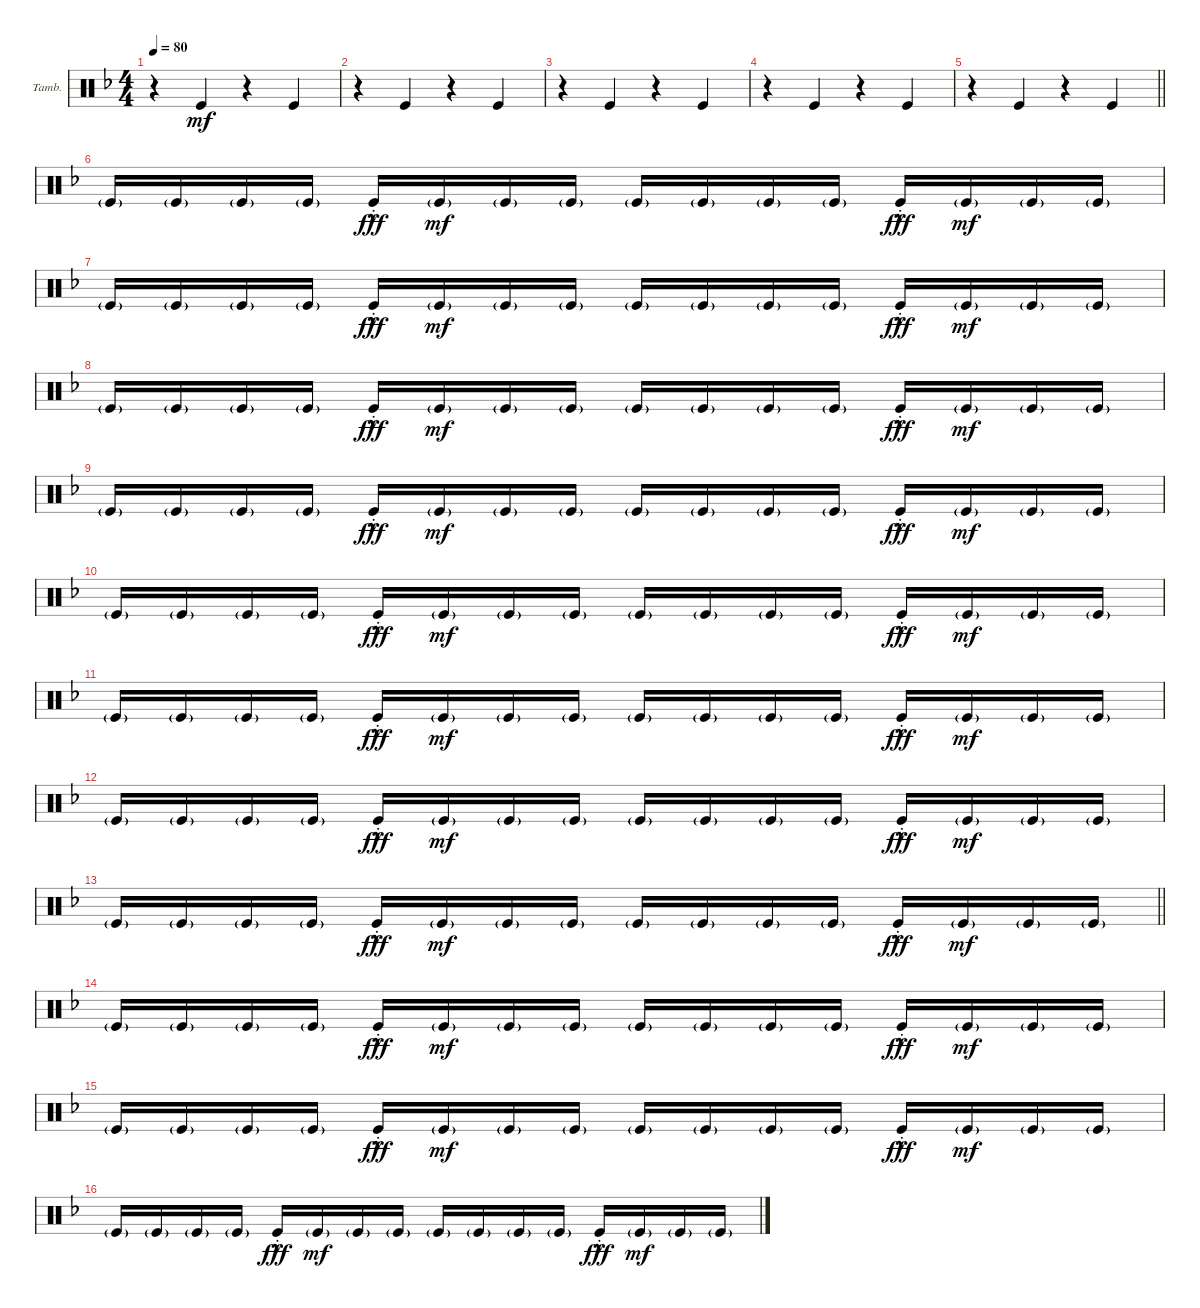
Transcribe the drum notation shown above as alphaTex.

\defaultSystemsLayout 4
\bracketExtendMode groupsimilarinstruments
\firstSystemTrackNameOrientation horizontal
\otherSystemsTrackNameOrientation horizontal
\track ("Tambourine" "Tamb.") {instrument percussion}
\staff {score}
\articulation defaults
\ts (4 4)
\tempo 80
\clef neutral
\ks f
r.4{dy mf} "Kick (hit)".4 r.4 "Kick (hit)".4 |
r.4 "Kick (hit)".4 r.4 "Kick (hit)".4 |
r.4 "Kick (hit)".4 r.4 "Kick (hit)".4 |
r.4 "Kick (hit)".4 r.4 "Kick (hit)".4 |
\barLineRight lightlight
r.4 "Kick (hit)".4 r.4 "Kick (hit)".4 |
"Kick (hit)"{g}.16 "Kick (hit)"{g}.16 "Kick (hit)"{g}.16 "Kick (hit)"{g}.16 "Kick (hit)"{hac st}.16{dy fff} "Kick (hit)"{g}.16{dy mf} "Kick (hit)"{g}.16 "Kick (hit)"{g}.16 "Kick (hit)"{g}.16 "Kick (hit)"{g}.16 "Kick (hit)"{g}.16 "Kick (hit)"{g}.16 "Kick (hit)"{hac st}.16{dy fff} "Kick (hit)"{g}.16{dy mf} "Kick (hit)"{g}.16 "Kick (hit)"{g}.16 |
"Kick (hit)"{g}.16 "Kick (hit)"{g}.16 "Kick (hit)"{g}.16 "Kick (hit)"{g}.16 "Kick (hit)"{hac st}.16{dy fff} "Kick (hit)"{g}.16{dy mf} "Kick (hit)"{g}.16 "Kick (hit)"{g}.16 "Kick (hit)"{g}.16 "Kick (hit)"{g}.16 "Kick (hit)"{g}.16 "Kick (hit)"{g}.16 "Kick (hit)"{hac st}.16{dy fff} "Kick (hit)"{g}.16{dy mf} "Kick (hit)"{g}.16 "Kick (hit)"{g}.16 |
"Kick (hit)"{g}.16 "Kick (hit)"{g}.16 "Kick (hit)"{g}.16 "Kick (hit)"{g}.16 "Kick (hit)"{hac st}.16{dy fff} "Kick (hit)"{g}.16{dy mf} "Kick (hit)"{g}.16 "Kick (hit)"{g}.16 "Kick (hit)"{g}.16 "Kick (hit)"{g}.16 "Kick (hit)"{g}.16 "Kick (hit)"{g}.16 "Kick (hit)"{hac st}.16{dy fff} "Kick (hit)"{g}.16{dy mf} "Kick (hit)"{g}.16 "Kick (hit)"{g}.16 |
"Kick (hit)"{g}.16 "Kick (hit)"{g}.16 "Kick (hit)"{g}.16 "Kick (hit)"{g}.16 "Kick (hit)"{hac st}.16{dy fff} "Kick (hit)"{g}.16{dy mf} "Kick (hit)"{g}.16 "Kick (hit)"{g}.16 "Kick (hit)"{g}.16 "Kick (hit)"{g}.16 "Kick (hit)"{g}.16 "Kick (hit)"{g}.16 "Kick (hit)"{hac st}.16{dy fff} "Kick (hit)"{g}.16{dy mf} "Kick (hit)"{g}.16 "Kick (hit)"{g}.16 |
"Kick (hit)"{g}.16 "Kick (hit)"{g}.16 "Kick (hit)"{g}.16 "Kick (hit)"{g}.16 "Kick (hit)"{hac st}.16{dy fff} "Kick (hit)"{g}.16{dy mf} "Kick (hit)"{g}.16 "Kick (hit)"{g}.16 "Kick (hit)"{g}.16 "Kick (hit)"{g}.16 "Kick (hit)"{g}.16 "Kick (hit)"{g}.16 "Kick (hit)"{hac st}.16{dy fff} "Kick (hit)"{g}.16{dy mf} "Kick (hit)"{g}.16 "Kick (hit)"{g}.16 |
"Kick (hit)"{g}.16 "Kick (hit)"{g}.16 "Kick (hit)"{g}.16 "Kick (hit)"{g}.16 "Kick (hit)"{hac st}.16{dy fff} "Kick (hit)"{g}.16{dy mf} "Kick (hit)"{g}.16 "Kick (hit)"{g}.16 "Kick (hit)"{g}.16 "Kick (hit)"{g}.16 "Kick (hit)"{g}.16 "Kick (hit)"{g}.16 "Kick (hit)"{hac st}.16{dy fff} "Kick (hit)"{g}.16{dy mf} "Kick (hit)"{g}.16 "Kick (hit)"{g}.16 |
"Kick (hit)"{g}.16 "Kick (hit)"{g}.16 "Kick (hit)"{g}.16 "Kick (hit)"{g}.16 "Kick (hit)"{hac st}.16{dy fff} "Kick (hit)"{g}.16{dy mf} "Kick (hit)"{g}.16 "Kick (hit)"{g}.16 "Kick (hit)"{g}.16 "Kick (hit)"{g}.16 "Kick (hit)"{g}.16 "Kick (hit)"{g}.16 "Kick (hit)"{hac st}.16{dy fff} "Kick (hit)"{g}.16{dy mf} "Kick (hit)"{g}.16 "Kick (hit)"{g}.16 |
\barLineRight lightlight "Kick (hit)"{g}.16 "Kick (hit)"{g}.16 "Kick (hit)"{g}.16 "Kick (hit)"{g}.16 "Kick (hit)"{hac st}.16{dy fff} "Kick (hit)"{g}.16{dy mf} "Kick (hit)"{g}.16 "Kick (hit)"{g}.16 "Kick (hit)"{g}.16 "Kick (hit)"{g}.16 "Kick (hit)"{g}.16 "Kick (hit)"{g}.16 "Kick (hit)"{hac st}.16{dy fff} "Kick (hit)"{g}.16{dy mf} "Kick (hit)"{g}.16 "Kick (hit)"{g}.16
|
"Kick (hit)"{g}.16 "Kick (hit)"{g}.16 "Kick (hit)"{g}.16 "Kick (hit)"{g}.16 "Kick (hit)"{hac st}.16{dy fff} "Kick (hit)"{g}.16{dy mf} "Kick (hit)"{g}.16 "Kick (hit)"{g}.16 "Kick (hit)"{g}.16 "Kick (hit)"{g}.16 "Kick (hit)"{g}.16 "Kick (hit)"{g}.16 "Kick (hit)"{hac st}.16{dy fff} "Kick (hit)"{g}.16{dy mf} "Kick (hit)"{g}.16 "Kick (hit)"{g}.16 |
"Kick (hit)"{g}.16 "Kick (hit)"{g}.16 "Kick (hit)"{g}.16 "Kick (hit)"{g}.16 "Kick (hit)"{hac st}.16{dy fff} "Kick (hit)"{g}.16{dy mf} "Kick (hit)"{g}.16 "Kick (hit)"{g}.16 "Kick (hit)"{g}.16 "Kick (hit)"{g}.16 "Kick (hit)"{g}.16 "Kick (hit)"{g}.16 "Kick (hit)"{hac st}.16{dy fff} "Kick (hit)"{g}.16{dy mf} "Kick (hit)"{g}.16 "Kick (hit)"{g}.16 |
"Kick (hit)"{g}.16 "Kick (hit)"{g}.16 "Kick (hit)"{g}.16 "Kick (hit)"{g}.16 "Kick (hit)"{hac st}.16{dy fff} "Kick (hit)"{g}.16{dy mf} "Kick (hit)"{g}.16 "Kick (hit)"{g}.16 "Kick (hit)"{g}.16 "Kick (hit)"{g}.16 "Kick (hit)"{g}.16 "Kick (hit)"{g}.16 "Kick (hit)"{hac st}.16{dy fff} "Kick (hit)"{g}.16{dy mf} "Kick (hit)"{g}.16 "Kick (hit)"{g}.16
